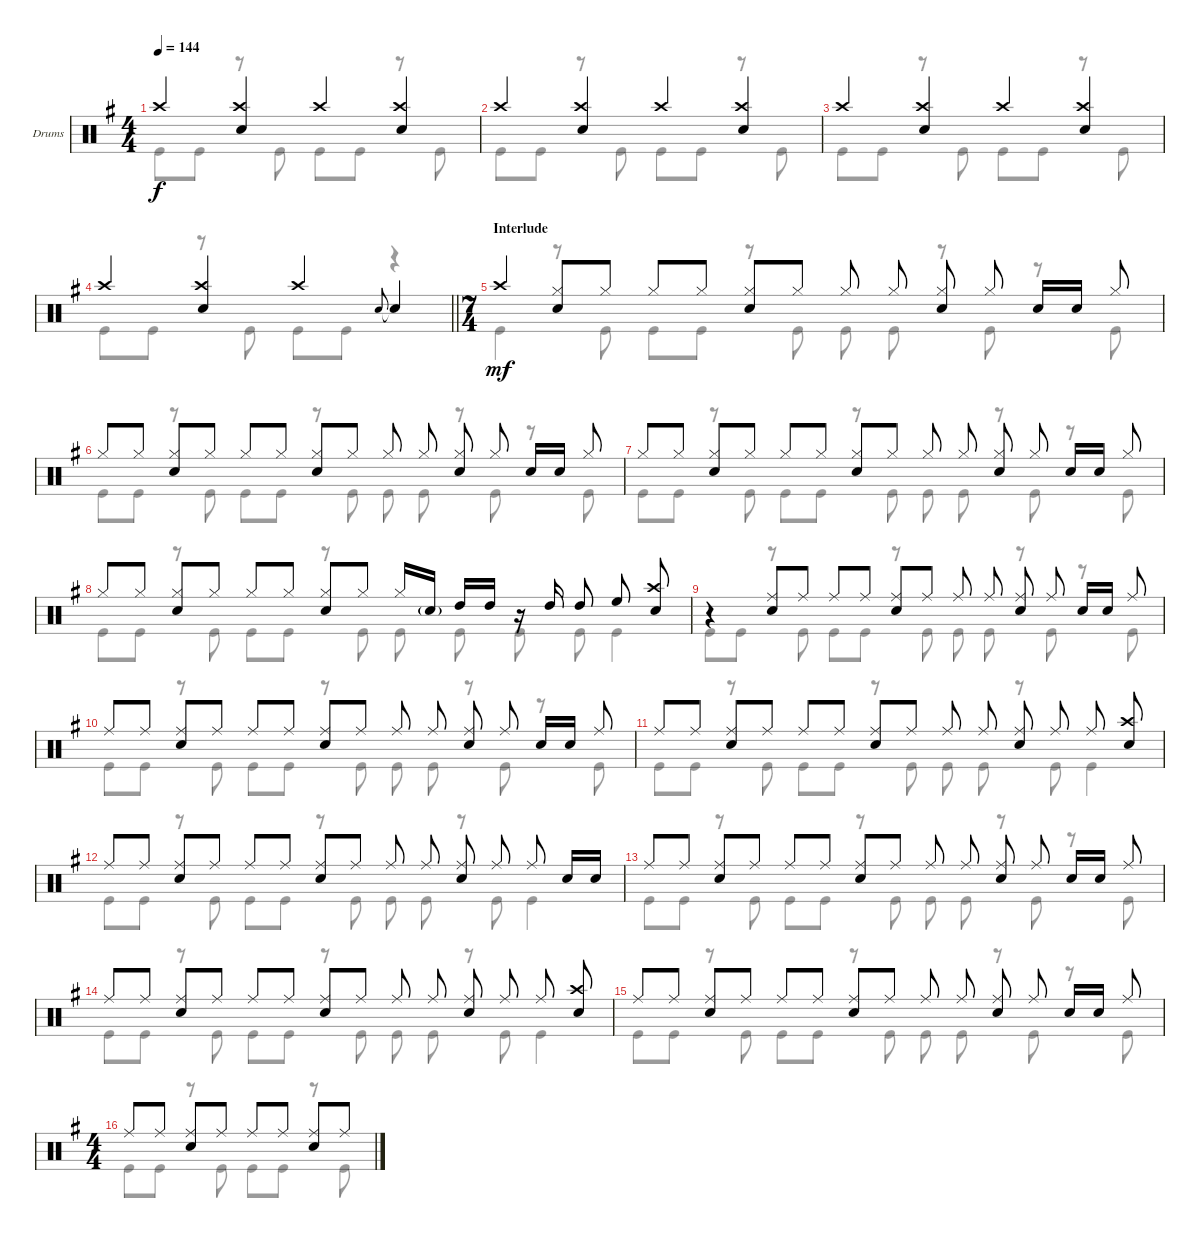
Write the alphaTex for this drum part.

\bracketExtendMode groupsimilarinstruments
\firstSystemTrackNameOrientation horizontal
\otherSystemsTrackNameOrientation horizontal
\track ("Drumkit" "Drums") {instrument percussion}
\staff {score}
\articulation defaults
\voice
\ts (4 4)
\tempo 144
\clef neutral
\scale
0.333333
\ks g "Crash high (hit)".4{dy f}
("Crash high (hit)" "Snare (hit) 2").4 "Crash high (hit)".4 ("Crash high (hit)" "Snare (hit) 2").4 |
\scale
0.333333 "Crash high (hit)".4 ("Crash high (hit)" "Snare (hit) 2").4 "Crash high (hit)".4 ("Crash high (hit)" "Snare (hit) 2").4 |
\scale
0.333333 "Crash high (hit)".4 ("Crash high (hit)" "Snare (hit) 2").4 "Crash high (hit)".4 ("Crash high (hit)" "Snare (hit) 2").4 |
\scale
0.333333
\barLineRight lightlight "Crash high (hit)".4
("Crash high (hit)" "Snare (hit) 2").4 "Crash high (hit)".4 "Snare (hit) 2".8{gr onbeat} "Snare (hit) 2"{t}.4 |
\ts (7 4)
\beaming (8 2 2 2 2)
\section ("" "Interlude")
\scale
0.502183 "Crash high (hit)".4{dy mf} ("Hi-Hat (closed)" "Snare (hit) 2").8 "Hi-Hat (closed)".8 "Hi-Hat (closed)".8 "Hi-Hat (closed)".8 ("Hi-Hat (closed)" "Snare (hit) 2").8 "Hi-Hat (closed)".8 "Hi-Hat (closed)".8 "Hi-Hat (closed)".8 ("Hi-Hat (closed)" "Snare (hit) 2").8 "Hi-Hat (closed)".8 "Snare (hit) 2".16 "Snare (hit) 2".16 "Hi-Hat (closed)".8 |
\scale
0.248908 "Hi-Hat (closed)".8 "Hi-Hat (closed)".8 ("Hi-Hat (closed)" "Snare (hit) 2").8 "Hi-Hat (closed)".8 "Hi-Hat (closed)".8 "Hi-Hat (closed)".8 ("Hi-Hat (closed)" "Snare (hit) 2").8 "Hi-Hat (closed)".8 "Hi-Hat (closed)".8 "Hi-Hat (closed)".8 ("Hi-Hat (closed)" "Snare (hit) 2").8 "Hi-Hat (closed)".8 "Snare (hit) 2".16 "Snare (hit) 2".16 "Hi-Hat (closed)".8 |
\scale
0.248908 "Hi-Hat (closed)".8 "Hi-Hat (closed)".8 ("Hi-Hat (closed)" "Snare (hit) 2").8 "Hi-Hat (closed)".8 "Hi-Hat (closed)".8 "Hi-Hat (closed)".8 ("Hi-Hat (closed)" "Snare (hit) 2").8 "Hi-Hat (closed)".8 "Hi-Hat (closed)".8 "Hi-Hat (closed)".8 ("Hi-Hat (closed)" "Snare (hit) 2").8 "Hi-Hat (closed)".8 "Snare (hit) 2".16 "Snare (hit) 2".16 "Hi-Hat (closed)".8 |
"Hi-Hat (closed)".8 "Hi-Hat (closed)".8 ("Hi-Hat (closed)" "Snare (hit) 2").8 "Hi-Hat (closed)".8 "Hi-Hat (closed)".8 "Hi-Hat (closed)".8 ("Hi-Hat (closed)" "Snare (hit) 2").8 "Hi-Hat (closed)".8 "Hi-Hat (closed)".16 "Snare (hit) 2"{g}.16 "High Tom (hit)".16 "High Tom (hit)".16 r.16 "High Tom (hit)".16 "High Tom (hit)".8 "High Floor Tom (hit)".8 ("Snare (hit) 2" "Crash high (hit)").8 |
r.4 ("Ride (middle)" "Snare (hit) 2").8 "Ride (middle)".8 "Ride (middle)".8 "Ride (middle)".8 ("Ride (middle)" "Snare (hit) 2").8 "Ride (middle)".8 "Ride (middle)".8 "Ride (middle)".8 ("Ride (middle)" "Snare (hit) 2").8 "Ride (middle)".8 "Snare (hit) 2".16 "Snare (hit) 2".16 "Ride (middle)".8 |
"Ride (middle)".8 "Ride (middle)".8 ("Ride (middle)" "Snare (hit) 2").8 "Ride (middle)".8 "Ride (middle)".8 "Ride (middle)".8 ("Ride (middle)" "Snare (hit) 2").8 "Ride (middle)".8 "Ride (middle)".8 "Ride (middle)".8 ("Ride (middle)" "Snare (hit) 2").8 "Ride (middle)".8 "Snare (hit) 2".16 "Snare (hit) 2".16 "Ride (middle)".8 |
"Ride (middle)".8 "Ride (middle)".8 ("Ride (middle)" "Snare (hit) 2").8 "Ride (middle)".8 "Ride (middle)".8 "Ride (middle)".8 ("Ride (middle)" "Snare (hit) 2").8 "Ride (middle)".8 "Ride (middle)".8 "Ride (middle)".8 ("Ride (middle)" "Snare (hit) 2").8 "Ride (middle)".8 "Ride (middle)".8 ("Crash high (hit)" "Snare (hit) 2").8 |
"Ride (middle)".8 "Ride (middle)".8 ("Ride (middle)" "Snare (hit) 2").8 "Ride (middle)".8 "Ride (middle)".8 "Ride (middle)".8 ("Ride (middle)" "Snare (hit) 2").8 "Ride (middle)".8 "Ride (middle)".8 "Ride (middle)".8 ("Ride (middle)" "Snare (hit) 2").8 "Ride (middle)".8 "Ride (middle)".8 "Snare (hit) 2".16 "Snare (hit) 2".16 |
"Ride (middle)".8 "Ride (middle)".8 ("Ride (middle)" "Snare (hit) 2").8 "Ride (middle)".8 "Ride (middle)".8 "Ride (middle)".8 ("Ride (middle)" "Snare (hit) 2").8 "Ride (middle)".8 "Ride (middle)".8 "Ride (middle)".8 ("Ride (middle)" "Snare (hit) 2").8 "Ride (middle)".8 "Snare (hit) 2".16 "Snare (hit) 2".16 "Ride (middle)".8 |
"Ride (middle)".8 "Ride (middle)".8 ("Ride (middle)" "Snare (hit) 2").8 "Ride (middle)".8 "Ride (middle)".8 "Ride (middle)".8 ("Ride (middle)" "Snare (hit) 2").8 "Ride (middle)".8 "Ride (middle)".8 "Ride (middle)".8 ("Ride (middle)" "Snare (hit) 2").8 "Ride (middle)".8 "Ride (middle)".8 ("Crash high (hit)" "Snare (hit) 2").8 |
"Ride (middle)".8 "Ride (middle)".8 ("Ride (middle)" "Snare (hit) 2").8 "Ride (middle)".8 "Ride (middle)".8 "Ride (middle)".8 ("Ride (middle)" "Snare (hit) 2").8 "Ride (middle)".8 "Ride (middle)".8 "Ride (middle)".8 ("Ride (middle)" "Snare (hit) 2").8 "Ride (middle)".8 "Snare (hit) 2".16 "Snare (hit) 2".16 "Ride (middle)".8 |
\ts (4 4)
\beaming (8 2 2 2 2)
"Ride (middle)".8 "Ride (middle)".8 ("Ride (middle)" "Snare (hit) 2").8 "Ride (middle)".8 "Ride (middle)".8 "Ride (middle)".8 ("Ride (middle)" "Snare (hit) 2").8 "Ride (middle)".8
\voice
\clef neutral
\ottava regular
\simile none
\scale
0.333333
\ks g "Kick (hit)".8{dy f} "Kick (hit)".8
r.8 "Kick (hit)".8 "Kick (hit)".8 "Kick (hit)".8 r.8 "Kick (hit)".8 |
\scale
0.333333 "Kick (hit)".8 "Kick (hit)".8 r.8 "Kick (hit)".8 "Kick (hit)".8 "Kick (hit)".8 r.8 "Kick (hit)".8 |
\scale
0.333333 "Kick (hit)".8 "Kick (hit)".8 r.8 "Kick (hit)".8 "Kick (hit)".8 "Kick (hit)".8 r.8 "Kick (hit)".8 |
\scale
0.333333
\barLineRight lightlight "Kick (hit)".8 "Kick (hit)".8
r.8 "Kick (hit)".8 "Kick (hit)".8 "Kick (hit)".8 r.4 |
\scale
0.502183 "Kick (hit)".4{dy mf} r.8 "Kick (hit)".8 "Kick (hit)".8 "Kick (hit)".8 r.8 "Kick (hit)".8 "Kick (hit)".8 "Kick (hit)".8 r.8 "Kick (hit)".8 r.8 "Kick (hit)".8 |
\scale
0.248908 "Kick (hit)".8 "Kick (hit)".8 r.8 "Kick (hit)".8 "Kick (hit)".8 "Kick (hit)".8 r.8 "Kick (hit)".8 "Kick (hit)".8 "Kick (hit)".8 r.8 "Kick (hit)".8 r.8 "Kick (hit)".8 |
\scale
0.248908 "Kick (hit)".8 "Kick (hit)".8 r.8 "Kick (hit)".8 "Kick (hit)".8 "Kick (hit)".8 r.8 "Kick (hit)".8 "Kick (hit)".8 "Kick (hit)".8 r.8 "Kick (hit)".8 r.8 "Kick (hit)".8 |
"Kick (hit)".8 "Kick (hit)".8 r.8 "Kick (hit)".8 "Kick (hit)".8 "Kick (hit)".8 r.8 "Kick (hit)".8 "Kick (hit)".8 "Kick (hit)".8 "Kick (hit)".8 "Kick (hit)".8 "Kick (hit)".4 |
"Kick (hit)".8 "Kick (hit)".8 r.8 "Kick (hit)".8 "Kick (hit)".8 "Kick (hit)".8 r.8 "Kick (hit)".8 "Kick (hit)".8 "Kick (hit)".8 r.8 "Kick (hit)".8 r.8 "Kick (hit)".8 |
"Kick (hit)".8 "Kick (hit)".8 r.8 "Kick (hit)".8 "Kick (hit)".8 "Kick (hit)".8 r.8 "Kick (hit)".8 "Kick (hit)".8 "Kick (hit)".8 r.8 "Kick (hit)".8 r.8 "Kick (hit)".8 |
"Kick (hit)".8 "Kick (hit)".8 r.8 "Kick (hit)".8 "Kick (hit)".8 "Kick (hit)".8 r.8 "Kick (hit)".8 "Kick (hit)".8 "Kick (hit)".8 r.8 "Kick (hit)".8 "Kick (hit)".4 |
"Kick (hit)".8 "Kick (hit)".8 r.8 "Kick (hit)".8 "Kick (hit)".8 "Kick (hit)".8 r.8 "Kick (hit)".8 "Kick (hit)".8 "Kick (hit)".8 r.8 "Kick (hit)".8 "Kick (hit)".4 |
"Kick (hit)".8 "Kick (hit)".8 r.8 "Kick (hit)".8 "Kick (hit)".8 "Kick (hit)".8 r.8 "Kick (hit)".8 "Kick (hit)".8 "Kick (hit)".8 r.8 "Kick (hit)".8 r.8 "Kick (hit)".8 |
"Kick (hit)".8 "Kick (hit)".8 r.8 "Kick (hit)".8 "Kick (hit)".8 "Kick (hit)".8 r.8 "Kick (hit)".8 "Kick (hit)".8 "Kick (hit)".8 r.8 "Kick (hit)".8 "Kick (hit)".4 |
"Kick (hit)".8 "Kick (hit)".8 r.8 "Kick (hit)".8 "Kick (hit)".8 "Kick (hit)".8 r.8 "Kick (hit)".8 "Kick (hit)".8 "Kick (hit)".8 r.8 "Kick (hit)".8 r.8 "Kick (hit)".8 |
"Kick (hit)".8 "Kick (hit)".8 r.8 "Kick (hit)".8 "Kick (hit)".8 "Kick (hit)".8 r.8 "Kick (hit)".8
